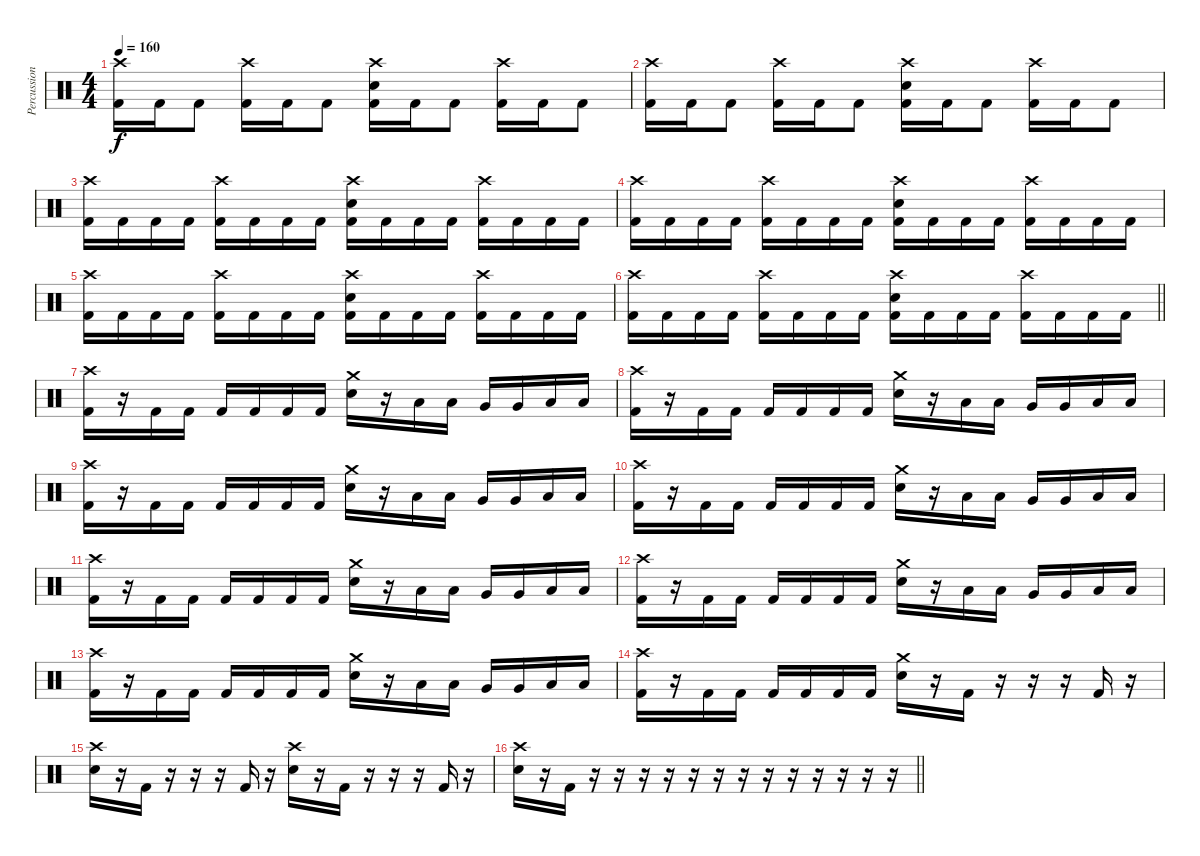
\track ("Percussion" "Percussion") {instrument percussion}
\staff {score}
\articulation defaults
\ts (4 4)
\tempo 160
\clef neutral
\ks c
("Crash high (hit)" "Kick (hit) 2").16{dy f} "Kick (hit) 2".16 "Kick (hit) 2".8 ("Crash high (hit)" "Kick (hit) 2").16 "Kick (hit) 2".16 "Kick (hit) 2".8 ("Crash high (hit)" "Snare (hit) 2" "Kick (hit) 2").16 "Kick (hit) 2".16 "Kick (hit) 2".8 ("Crash high (hit)" "Kick (hit) 2").16 "Kick (hit) 2".16 "Kick (hit) 2".8 |
("Crash high (hit)" "Kick (hit) 2").16 "Kick (hit) 2".16 "Kick (hit) 2".8 ("Crash high (hit)" "Kick (hit) 2").16 "Kick (hit) 2".16 "Kick (hit) 2".8 ("Crash high (hit)" "Snare (hit) 2" "Kick (hit) 2").16 "Kick (hit) 2".16 "Kick (hit) 2".8 ("Crash high (hit)" "Kick (hit) 2").16 "Kick (hit) 2".16 "Kick (hit) 2".8 |
("Crash high (hit)" "Kick (hit) 2").16 "Kick (hit) 2".16 "Kick (hit) 2".16 "Kick (hit) 2".16 ("Crash high (hit)" "Kick (hit) 2").16 "Kick (hit) 2".16 "Kick (hit) 2".16 "Kick (hit) 2".16 ("Crash high (hit)" "Snare (hit) 2" "Kick (hit) 2").16 "Kick (hit) 2".16 "Kick (hit) 2".16 "Kick (hit) 2".16 ("Crash high (hit)" "Kick (hit) 2").16 "Kick (hit) 2".16 "Kick (hit) 2".16 "Kick (hit) 2".16 |
("Crash high (hit)" "Kick (hit) 2").16 "Kick (hit) 2".16 "Kick (hit) 2".16 "Kick (hit) 2".16 ("Crash high (hit)" "Kick (hit) 2").16 "Kick (hit) 2".16 "Kick (hit) 2".16 "Kick (hit) 2".16 ("Crash high (hit)" "Snare (hit) 2" "Kick (hit) 2").16 "Kick (hit) 2".16 "Kick (hit) 2".16 "Kick (hit) 2".16 ("Crash high (hit)" "Kick (hit) 2").16 "Kick (hit) 2".16 "Kick (hit) 2".16 "Kick (hit) 2".16 |
("Crash high (hit)" "Kick (hit) 2").16 "Kick (hit) 2".16 "Kick (hit) 2".16 "Kick (hit) 2".16 ("Crash high (hit)" "Kick (hit) 2").16 "Kick (hit) 2".16 "Kick (hit) 2".16 "Kick (hit) 2".16 ("Crash high (hit)" "Snare (hit) 2" "Kick (hit) 2").16 "Kick (hit) 2".16 "Kick (hit) 2".16 "Kick (hit) 2".16 ("Crash high (hit)" "Kick (hit) 2").16 "Kick (hit) 2".16 "Kick (hit) 2".16 "Kick (hit) 2".16 |
\barLineRight lightlight
("Crash high (hit)" "Kick (hit) 2").16 "Kick (hit) 2".16 "Kick (hit) 2".16 "Kick (hit) 2".16 ("Crash high (hit)" "Kick (hit) 2").16 "Kick (hit) 2".16 "Kick (hit) 2".16 "Kick (hit) 2".16 ("Crash high (hit)" "Snare (hit) 2" "Kick (hit) 2").16 "Kick (hit) 2".16 "Kick (hit) 2".16 "Kick (hit) 2".16 ("Crash high (hit)" "Kick (hit) 2").16 "Kick (hit) 2".16 "Kick (hit) 2".16 "Kick (hit) 2".16 |
\section ("" "")
("Crash high (hit)" "Kick (hit) 2").16 r.16 "Kick (hit) 2".16 "Kick (hit) 2".16 "Kick (hit) 2".16 "Kick (hit) 2".16 "Kick (hit) 2".16 "Kick (hit) 2".16 ("Crash medium (hit)" "Snare (hit) 2").16 r.16 "Low Tom (hit)".16 "Low Tom (hit)".16 "Very Low Tom (hit)".16 "Very Low Tom (hit)".16 "Low Floor Tom (hit)".16 "Low Floor Tom (hit)".16 |
("Crash high (hit)" "Kick (hit) 2").16 r.16 "Kick (hit) 2".16 "Kick (hit) 2".16 "Kick (hit) 2".16 "Kick (hit) 2".16 "Kick (hit) 2".16 "Kick (hit) 2".16 ("Crash medium (hit)" "Snare (hit) 2").16 r.16 "Low Tom (hit)".16 "Low Tom (hit)".16 "Very Low Tom (hit)".16 "Very Low Tom (hit)".16 "Low Floor Tom (hit)".16 "Low Floor Tom (hit)".16 |
("Crash high (hit)" "Kick (hit) 2").16 r.16 "Kick (hit) 2".16 "Kick (hit) 2".16 "Kick (hit) 2".16 "Kick (hit) 2".16 "Kick (hit) 2".16 "Kick (hit) 2".16 ("Crash medium (hit)" "Snare (hit) 2").16 r.16 "Low Tom (hit)".16 "Low Tom (hit)".16 "Very Low Tom (hit)".16 "Very Low Tom (hit)".16 "Low Floor Tom (hit)".16 "Low Floor Tom (hit)".16 |
("Crash high (hit)" "Kick (hit) 2").16 r.16 "Kick (hit) 2".16 "Kick (hit) 2".16 "Kick (hit) 2".16 "Kick (hit) 2".16 "Kick (hit) 2".16 "Kick (hit) 2".16 ("Crash medium (hit)" "Snare (hit) 2").16 r.16 "Low Tom (hit)".16 "Low Tom (hit)".16 "Very Low Tom (hit)".16 "Very Low Tom (hit)".16 "Low Floor Tom (hit)".16 "Low Floor Tom (hit)".16 |
("Crash high (hit)" "Kick (hit) 2").16 r.16 "Kick (hit) 2".16 "Kick (hit) 2".16 "Kick (hit) 2".16 "Kick (hit) 2".16 "Kick (hit) 2".16 "Kick (hit) 2".16 ("Crash medium (hit)" "Snare (hit) 2").16 r.16 "Low Tom (hit)".16 "Low Tom (hit)".16 "Very Low Tom (hit)".16 "Very Low Tom (hit)".16 "Low Floor Tom (hit)".16 "Low Floor Tom (hit)".16 |
("Crash high (hit)" "Kick (hit) 2").16 r.16 "Kick (hit) 2".16 "Kick (hit) 2".16 "Kick (hit) 2".16 "Kick (hit) 2".16 "Kick (hit) 2".16 "Kick (hit) 2".16 ("Crash medium (hit)" "Snare (hit) 2").16 r.16 "Low Tom (hit)".16 "Low Tom (hit)".16 "Very Low Tom (hit)".16 "Very Low Tom (hit)".16 "Low Floor Tom (hit)".16 "Low Floor Tom (hit)".16 |
("Crash high (hit)" "Kick (hit) 2").16 r.16 "Kick (hit) 2".16 "Kick (hit) 2".16 "Kick (hit) 2".16 "Kick (hit) 2".16 "Kick (hit) 2".16 "Kick (hit) 2".16 ("Crash medium (hit)" "Snare (hit) 2").16 r.16 "Low Tom (hit)".16 "Low Tom (hit)".16 "Very Low Tom (hit)".16 "Very Low Tom (hit)".16 "Low Floor Tom (hit)".16 "Low Floor Tom (hit)".16 |
("Crash high (hit)" "Kick (hit) 2").16 r.16 "Kick (hit) 2".16 "Kick (hit) 2".16 "Kick (hit) 2".16 "Kick (hit) 2".16 "Kick (hit) 2".16 "Kick (hit) 2".16 ("Crash medium (hit)" "Snare (hit) 2").16 r.16 "Kick (hit) 2".16 r.16 r.16 r.16 "Kick (hit) 2".16 r.16 |
("Crash high (hit)" "Snare (hit) 2").16 r.16 "Kick (hit) 2".16 r.16 r.16 r.16 "Kick (hit) 2".16 r.16 ("Crash high (hit)" "Snare (hit) 2").16 r.16 "Kick (hit) 2".16 r.16 r.16 r.16 "Kick (hit) 2".16 r.16 |
\barLineRight lightlight
("Crash high (hit)" "Snare (hit) 2").16 r.16 "Kick (hit) 2".16 r.16 r.16 r.16 r.16 r.16 r.16 r.16 r.16 r.16 r.16 r.16 r.16 r.16
